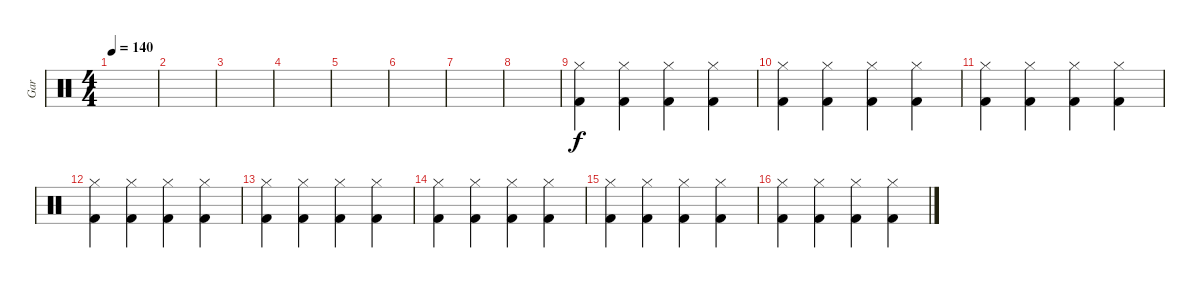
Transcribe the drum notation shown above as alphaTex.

\track ("Gar" "Gar") {instrument percussion}
\staff {score}
\articulation defaults
\ts (4 4)
\tempo 140
\clef neutral
\ks c
|
|
|
|
|
|
|
|
("Hi-Hat (closed)" "Kick (hit) 2").4 ("Hi-Hat (closed)" "Kick (hit) 2").4 ("Hi-Hat (closed)" "Kick (hit) 2").4 ("Hi-Hat (closed)" "Kick (hit) 2").4 |
("Hi-Hat (closed)" "Kick (hit) 2").4 ("Hi-Hat (closed)" "Kick (hit) 2").4 ("Hi-Hat (closed)" "Kick (hit) 2").4 ("Hi-Hat (closed)" "Kick (hit) 2").4 |
("Hi-Hat (closed)" "Kick (hit) 2").4 ("Hi-Hat (closed)" "Kick (hit) 2").4 ("Hi-Hat (closed)" "Kick (hit) 2").4 ("Hi-Hat (closed)" "Kick (hit) 2").4 |
("Hi-Hat (closed)" "Kick (hit) 2").4 ("Hi-Hat (closed)" "Kick (hit) 2").4 ("Hi-Hat (closed)" "Kick (hit) 2").4 ("Hi-Hat (closed)" "Kick (hit) 2").4 |
("Hi-Hat (closed)" "Kick (hit) 2").4 ("Hi-Hat (closed)" "Kick (hit) 2").4 ("Hi-Hat (closed)" "Kick (hit) 2").4 ("Hi-Hat (closed)" "Kick (hit) 2").4 |
("Hi-Hat (closed)" "Kick (hit) 2").4 ("Hi-Hat (closed)" "Kick (hit) 2").4 ("Hi-Hat (closed)" "Kick (hit) 2").4 ("Hi-Hat (closed)" "Kick (hit) 2").4 |
("Hi-Hat (closed)" "Kick (hit) 2").4 ("Hi-Hat (closed)" "Kick (hit) 2").4 ("Hi-Hat (closed)" "Kick (hit) 2").4 ("Hi-Hat (closed)" "Kick (hit) 2").4 |
("Hi-Hat (closed)" "Kick (hit) 2").4 ("Hi-Hat (closed)" "Kick (hit) 2").4 ("Hi-Hat (closed)" "Kick (hit) 2").4 ("Hi-Hat (closed)" "Kick (hit) 2").4
